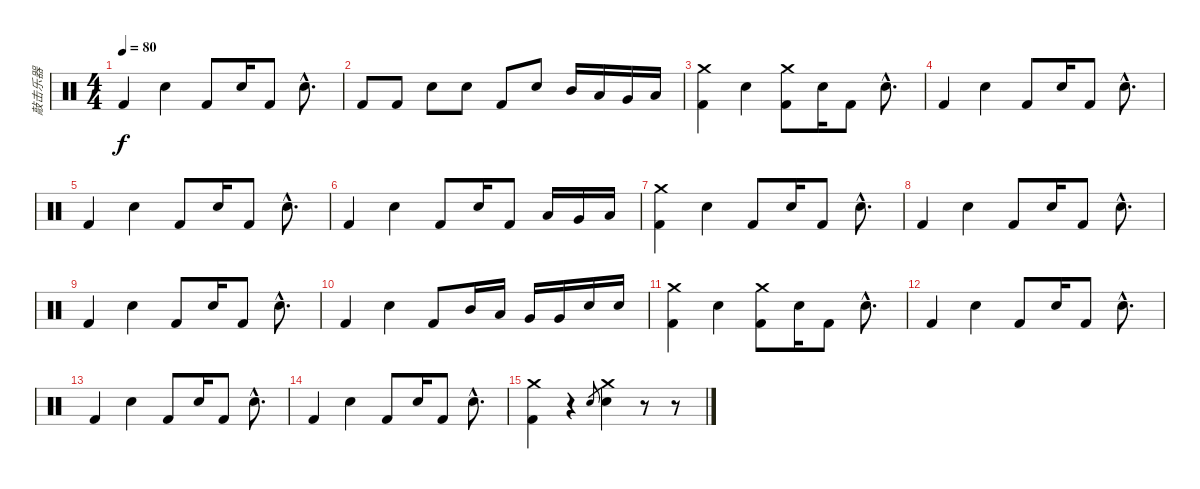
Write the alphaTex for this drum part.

\track ("敲击乐器" "敲击乐器") {instrument percussion}
\staff {score}
\articulation defaults
\ts (4 4)
\tempo 80
\clef neutral
\ks c "Kick (hit) 2".4{dy f} "Electric Snare (hit)".4 "Kick (hit) 2".8 "Electric Snare (hit)".16 "Kick (hit) 2".8 "Electric Snare (hit)"{hac}.8{d}
|
"Kick (hit) 2".8 "Kick (hit) 2".8 "Electric Snare (hit)".8 "Electric Snare (hit)".8 "Kick (hit) 2".8 "Electric Snare (hit)".8 "Mid Tom (hit)".16 "Low Tom (hit)".16 "Very Low Tom (hit)".16 "Low Floor Tom (hit)".16 |
("Crash medium (hit)" "Kick (hit) 2").4 "Electric Snare (hit)".4 ("Crash medium (hit)" "Kick (hit) 2").8 "Electric Snare (hit)".16 "Kick (hit) 2".8 "Electric Snare (hit)"{hac}.8{d} |
"Kick (hit) 2".4 "Electric Snare (hit)".4 "Kick (hit) 2".8 "Electric Snare (hit)".16 "Kick (hit) 2".8 "Electric Snare (hit)"{hac}.8{d} |
"Kick (hit) 2".4 "Electric Snare (hit)".4 "Kick (hit) 2".8 "Electric Snare (hit)".16 "Kick (hit) 2".8 "Electric Snare (hit)"{hac}.8{d} |
"Kick (hit) 2".4 "Electric Snare (hit)".4 "Kick (hit) 2".8 "Electric Snare (hit)".16 "Kick (hit) 2".8 "Low Tom (hit)".16 "Very Low Tom (hit)".16 "Low Floor Tom (hit)".16 |
("Crash medium (hit)" "Kick (hit) 2").4 "Electric Snare (hit)".4 "Kick (hit) 2".8 "Electric Snare (hit)".16 "Kick (hit) 2".8 "Electric Snare (hit)"{hac}.8{d} |
"Kick (hit) 2".4 "Electric Snare (hit)".4 "Kick (hit) 2".8 "Electric Snare (hit)".16 "Kick (hit) 2".8 "Electric Snare (hit)"{hac}.8{d} |
"Kick (hit) 2".4 "Electric Snare (hit)".4 "Kick (hit) 2".8 "Electric Snare (hit)".16 "Kick (hit) 2".8 "Electric Snare (hit)"{hac}.8{d} |
"Kick (hit) 2".4 "Electric Snare (hit)".4 "Kick (hit) 2".8 "Mid Tom (hit)".16 "Low Tom (hit)".16 "Very Low Tom (hit)".16 "Very Low Tom (hit)".16 "Electric Snare (hit)".16 "Electric Snare (hit)".16 |
("Crash medium (hit)" "Kick (hit) 2").4 "Electric Snare (hit)".4 ("Crash medium (hit)" "Kick (hit) 2").8 "Electric Snare (hit)".16 "Kick (hit) 2".8 "Electric Snare (hit)"{hac}.8{d} |
"Kick (hit) 2".4 "Electric Snare (hit)".4 "Kick (hit) 2".8 "Electric Snare (hit)".16 "Kick (hit) 2".8 "Electric Snare (hit)"{hac}.8{d} |
"Kick (hit) 2".4 "Electric Snare (hit)".4 "Kick (hit) 2".8 "Electric Snare (hit)".16 "Kick (hit) 2".8 "Electric Snare (hit)"{hac}.8{d} |
"Kick (hit) 2".4 "Electric Snare (hit)".4 "Kick (hit) 2".8 "Electric Snare (hit)".16 "Kick (hit) 2".8 "Electric Snare (hit)"{hac}.8{d} |
("Crash medium (hit)" "Kick (hit) 2").4 r.4 "Electric Snare (hit)".8{gr} ("Crash medium (hit)" "Electric Snare (hit)").4 r.8 r.8
